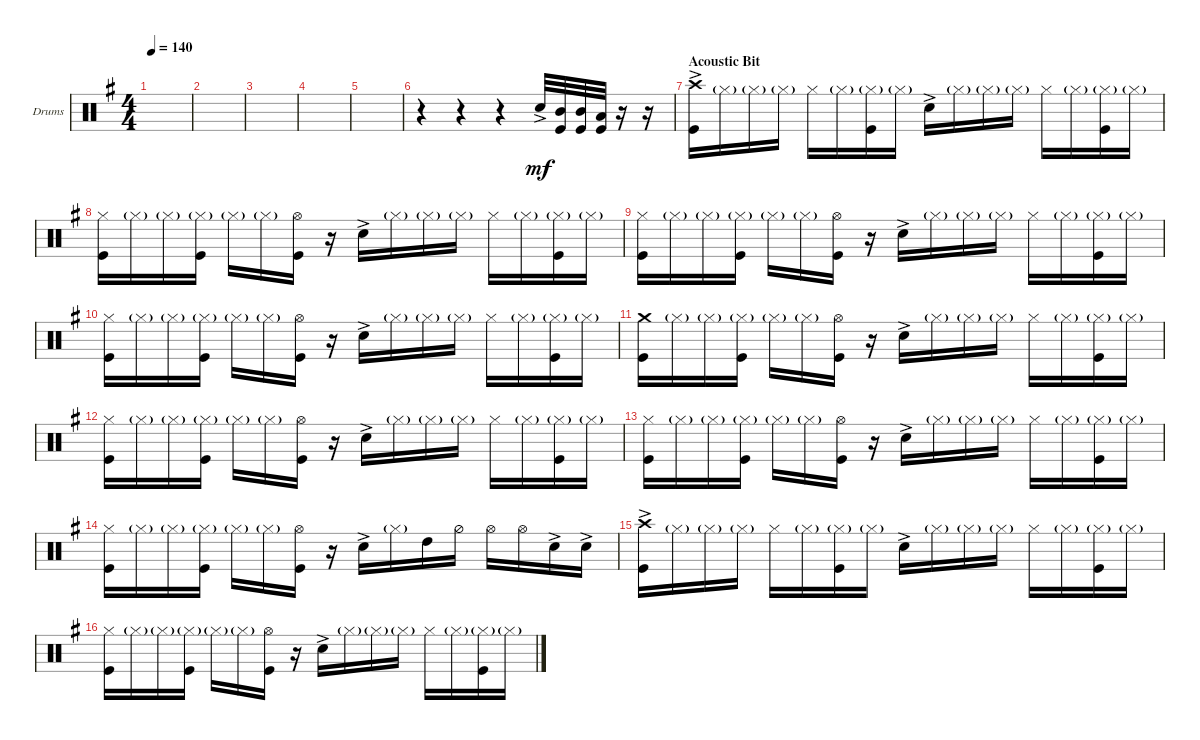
\bracketExtendMode groupsimilarinstruments
\firstSystemTrackNameOrientation horizontal
\otherSystemsTrackNameOrientation horizontal
\track ("Drumkit" "Drums") {instrument percussion}
\staff {score}
\articulation defaults
\ts (4 4)
\tempo 140
\clef neutral
\ks eminor
|
|
|
|
|
r.4 r.4 r.4 "Snare (hit) 2"{ac}.32{dy mf} ("Kick (hit)" "Mid Tom (hit)").32 ("Kick (hit)" "Mid Tom (hit)").32 ("Kick (hit)" "Low Tom (hit)").32 r.16 r.16 |
\section ("" "Acoustic Bit")
("Kick (hit)" "Crash high (hit)"{ac}).16 "Hi-Hat (closed)"{g}.16 "Hi-Hat (closed)"{g}.16 "Hi-Hat (closed)"{g}.16 "Hi-Hat (closed)".16 "Hi-Hat (closed)"{g}.16 ("Hi-Hat (closed)"{g} "Kick (hit)").16 "Hi-Hat (closed)"{g}.16 "Snare (hit) 2"{ac}.16 "Hi-Hat (closed)"{g}.16 "Hi-Hat (closed)"{g}.16 "Hi-Hat (closed)"{g}.16 "Hi-Hat (closed)".16 "Hi-Hat (closed)"{g}.16 ("Hi-Hat (closed)"{g} "Kick (hit)").16 "Hi-Hat (closed)"{g}.16 |
("Hi-Hat (closed)" "Kick (hit)").16 "Hi-Hat (closed)"{g}.16 "Hi-Hat (closed)"{g}.16 ("Hi-Hat (closed)"{g} "Kick (hit)").16 "Hi-Hat (closed)"{g}.16 "Hi-Hat (closed)"{g}.16 ("Hi-Hat (open)" "Kick (hit)").16 r.16 "Snare (hit) 2"{ac}.16 "Hi-Hat (closed)"{g}.16 "Hi-Hat (closed)"{g}.16 "Hi-Hat (closed)"{g}.16 "Hi-Hat (closed)".16 "Hi-Hat (closed)"{g}.16 ("Hi-Hat (closed)"{g} "Kick (hit)").16 "Hi-Hat (closed)"{g}.16 |
("Hi-Hat (closed)" "Kick (hit)").16 "Hi-Hat (closed)"{g}.16 "Hi-Hat (closed)"{g}.16 ("Hi-Hat (closed)"{g} "Kick (hit)").16 "Hi-Hat (closed)"{g}.16 "Hi-Hat (closed)"{g}.16 ("Hi-Hat (open)" "Kick (hit)").16 r.16 "Snare (hit) 2"{ac}.16 "Hi-Hat (closed)"{g}.16 "Hi-Hat (closed)"{g}.16 "Hi-Hat (closed)"{g}.16 "Hi-Hat (closed)".16 "Hi-Hat (closed)"{g}.16 ("Hi-Hat (closed)"{g} "Kick (hit)").16 "Hi-Hat (closed)"{g}.16 |
("Hi-Hat (closed)" "Kick (hit)").16 "Hi-Hat (closed)"{g}.16 "Hi-Hat (closed)"{g}.16 ("Hi-Hat (closed)"{g} "Kick (hit)").16 "Hi-Hat (closed)"{g}.16 "Hi-Hat (closed)"{g}.16 ("Hi-Hat (open)" "Kick (hit)").16 r.16 "Snare (hit) 2"{ac}.16 "Hi-Hat (closed)"{g}.16 "Hi-Hat (closed)"{g}.16 "Hi-Hat (closed)"{g}.16 "Hi-Hat (closed)".16 "Hi-Hat (closed)"{g}.16 ("Hi-Hat (closed)"{g} "Kick (hit)").16 "Hi-Hat (closed)"{g}.16 |
("Kick (hit)" "Crash medium (hit)").16 "Hi-Hat (closed)"{g}.16 "Hi-Hat (closed)"{g}.16 ("Hi-Hat (closed)"{g} "Kick (hit)").16 "Hi-Hat (closed)"{g}.16 "Hi-Hat (closed)"{g}.16 ("Hi-Hat (open)" "Kick (hit)").16 r.16 "Snare (hit) 2"{ac}.16 "Hi-Hat (closed)"{g}.16 "Hi-Hat (closed)"{g}.16 "Hi-Hat (closed)"{g}.16 "Hi-Hat (closed)".16 "Hi-Hat (closed)"{g}.16 ("Hi-Hat (closed)"{g} "Kick (hit)").16 "Hi-Hat (closed)"{g}.16 |
("Hi-Hat (closed)" "Kick (hit)").16 "Hi-Hat (closed)"{g}.16 "Hi-Hat (closed)"{g}.16 ("Hi-Hat (closed)"{g} "Kick (hit)").16 "Hi-Hat (closed)"{g}.16 "Hi-Hat (closed)"{g}.16 ("Hi-Hat (open)" "Kick (hit)").16 r.16 "Snare (hit) 2"{ac}.16 "Hi-Hat (closed)"{g}.16 "Hi-Hat (closed)"{g}.16 "Hi-Hat (closed)"{g}.16 "Hi-Hat (closed)".16 "Hi-Hat (closed)"{g}.16 ("Hi-Hat (closed)"{g} "Kick (hit)").16 "Hi-Hat (closed)"{g}.16 |
("Hi-Hat (closed)" "Kick (hit)").16 "Hi-Hat (closed)"{g}.16 "Hi-Hat (closed)"{g}.16 ("Hi-Hat (closed)"{g} "Kick (hit)").16 "Hi-Hat (closed)"{g}.16 "Hi-Hat (closed)"{g}.16 ("Hi-Hat (open)" "Kick (hit)").16 r.16 "Snare (hit) 2"{ac}.16 "Hi-Hat (closed)"{g}.16 "Hi-Hat (closed)"{g}.16 "Hi-Hat (closed)"{g}.16 "Hi-Hat (closed)".16 "Hi-Hat (closed)"{g}.16 ("Hi-Hat (closed)"{g} "Kick (hit)").16 "Hi-Hat (closed)"{g}.16 |
("Hi-Hat (closed)" "Kick (hit)").16 "Hi-Hat (closed)"{g}.16 "Hi-Hat (closed)"{g}.16 ("Hi-Hat (closed)"{g} "Kick (hit)").16 "Hi-Hat (closed)"{g}.16 "Hi-Hat (closed)"{g}.16 ("Hi-Hat (open)" "Kick (hit)").16 r.16 "Snare (hit) 2"{ac}.16 "Hi-Hat (closed)"{g}.16 "High Tom (hit)".16 "Hi-Hat (half)".16 "Hi-Hat (open)".16 "Hi-Hat (open)".16 "Snare (hit) 2"{ac}.16 "Snare (hit) 2"{ac}.16 |
("Kick (hit)" "Crash high (hit)"{ac}).16 "Hi-Hat (closed)"{g}.16 "Hi-Hat (closed)"{g}.16 "Hi-Hat (closed)"{g}.16 "Hi-Hat (closed)".16 "Hi-Hat (closed)"{g}.16 ("Hi-Hat (closed)"{g} "Kick (hit)").16 "Hi-Hat (closed)"{g}.16 "Snare (hit) 2"{ac}.16 "Hi-Hat (closed)"{g}.16 "Hi-Hat (closed)"{g}.16 "Hi-Hat (closed)"{g}.16 "Hi-Hat (closed)".16 "Hi-Hat (closed)"{g}.16 ("Hi-Hat (closed)"{g} "Kick (hit)").16 "Hi-Hat (closed)"{g}.16 |
("Hi-Hat (closed)" "Kick (hit)").16 "Hi-Hat (closed)"{g}.16 "Hi-Hat (closed)"{g}.16 ("Hi-Hat (closed)"{g} "Kick (hit)").16 "Hi-Hat (closed)"{g}.16 "Hi-Hat (closed)"{g}.16 ("Hi-Hat (open)" "Kick (hit)").16 r.16 "Snare (hit) 2"{ac}.16 "Hi-Hat (closed)"{g}.16 "Hi-Hat (closed)"{g}.16 "Hi-Hat (closed)"{g}.16 "Hi-Hat (closed)".16 "Hi-Hat (closed)"{g}.16 ("Hi-Hat (closed)"{g} "Kick (hit)").16 "Hi-Hat (closed)"{g}.16
